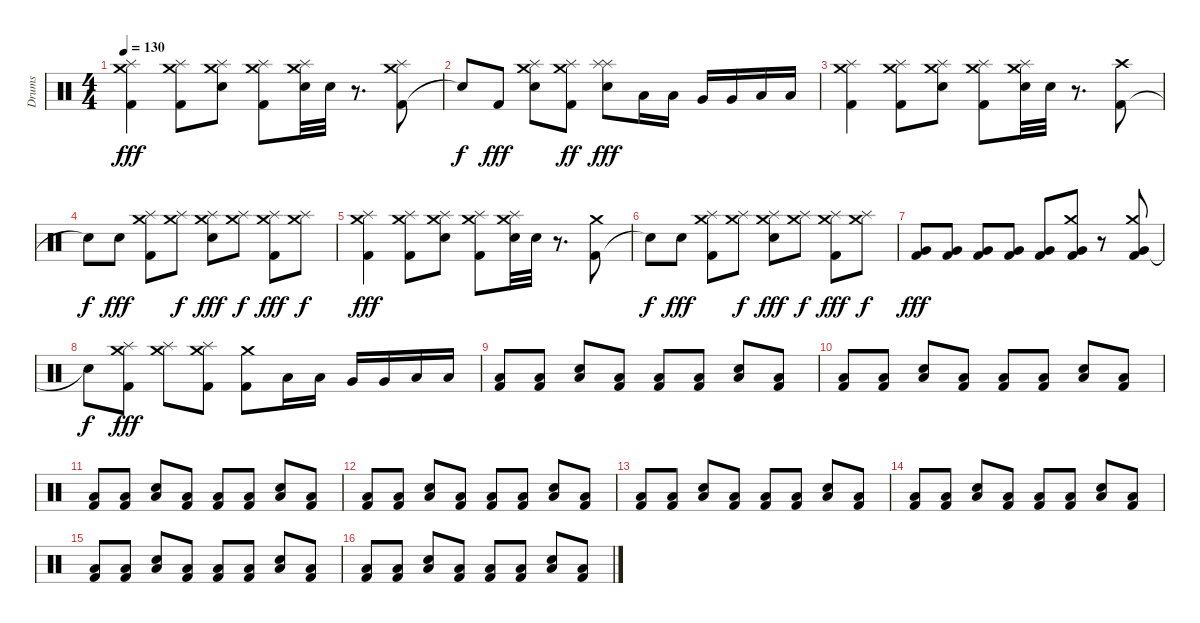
\track ("Drums" "Drums") {instrument percussion}
\staff {score}
\articulation defaults
\ts (4 4)
\tempo 130
\clef neutral
\ks c
("Kick (hit) 2" "Crash medium (hit)" "Splash (hit)").4{dy fff} ("Kick (hit) 2" "Crash medium (hit)" "Splash (hit)").8 ("Snare (hit) 2" "Crash medium (hit)" "Splash (hit)").8 ("Kick (hit) 2" "Crash medium (hit)" "Splash (hit)").8 ("Snare (hit) 2" "Crash medium (hit)" "Splash (hit)").32 "Snare (hit) 2".32 r.8{d} ("Kick (hit) 2" "Crash medium (hit)" "Splash (hit)").8 |
"Snare (hit)"{t}.8{dy f} "Kick (hit) 2".8{dy fff} ("Snare (hit) 2" "Crash medium (hit)" "Splash (hit)").8 ("Kick (hit) 2" "Crash medium (hit)" "Splash (hit)").8{dy ff} ("Snare (hit) 2" "Splash (hit)" "Splash (hit)").8{dy fff} "Low Tom (hit)".16 "Low Tom (hit)".16 "Very Low Tom (hit)".16 "Very Low Tom (hit)".16 "Low Floor Tom (hit)".16 "Low Floor Tom (hit)".16 |
("Kick (hit) 2" "Crash medium (hit)" "Splash (hit)").4 ("Kick (hit) 2" "Crash medium (hit)" "Splash (hit)").8 ("Snare (hit) 2" "Crash medium (hit)" "Splash (hit)").8 ("Kick (hit) 2" "Crash medium (hit)" "Splash (hit)").8 ("Snare (hit) 2" "Crash medium (hit)" "Splash (hit)").32 "Snare (hit) 2".32 r.8{d} ("Kick (hit) 2" "Crash high (hit)").8 |
"Snare (hit)"{t}.8{dy f} "Snare (hit) 2".8{dy fff} ("Kick (hit) 2" "Crash medium (hit)" "Splash (hit)").8 ("Crash medium (hit)" "Splash (hit)").8{dy f} ("Snare (hit) 2" "Crash medium (hit)" "Splash (hit)").8{dy fff} ("Crash medium (hit)" "Splash (hit)").8{dy f} ("Kick (hit) 2" "Crash medium (hit)" "Splash (hit)").8{dy fff} ("Crash medium (hit)" "Splash (hit)").8{dy f} |
("Kick (hit) 2" "Crash medium (hit)" "Splash (hit)").4{dy fff} ("Kick (hit) 2" "Crash medium (hit)" "Splash (hit)").8 ("Snare (hit) 2" "Crash medium (hit)" "Splash (hit)").8 ("Kick (hit) 2" "Crash medium (hit)" "Splash (hit)").8 ("Snare (hit) 2" "Crash medium (hit)" "Splash (hit)").32 "Snare (hit) 2".32 r.8{d} ("Kick (hit) 2" "Crash medium (hit)").8 |
"Snare (hit)"{t}.8{dy f} "Snare (hit) 2".8{dy fff} ("Kick (hit) 2" "Crash medium (hit)" "Splash (hit)").8 ("Crash medium (hit)" "Splash (hit)").8{dy f} ("Snare (hit) 2" "Crash medium (hit)" "Splash (hit)").8{dy fff} ("Crash medium (hit)" "Splash (hit)").8{dy f} ("Kick (hit) 2" "Crash medium (hit)" "Splash (hit)").8{dy fff} ("Crash medium (hit)" "Splash (hit)").8{dy f} |
("Very Low Tom (hit)" "Kick (hit) 2").8{dy fff} ("Very Low Tom (hit)" "Kick (hit) 2").8 ("Very Low Tom (hit)" "Kick (hit) 2").8 ("Very Low Tom (hit)" "Kick (hit) 2").8 ("Very Low Tom (hit)" "Kick (hit) 2").8 ("Very Low Tom (hit)" "Kick (hit) 2" "Crash medium (hit)").8 r.8 ("Very Low Tom (hit)" "Kick (hit) 2" "Crash medium (hit)").8 |
"Snare (hit)"{t}.8{dy f} ("Kick (hit) 2" "Crash medium (hit)" "Splash (hit)").8{dy fff} ("Crash medium (hit)" "Splash (hit)").8 ("Kick (hit) 2" "Crash medium (hit)" "Splash (hit)").8 ("Kick (hit) 2" "Crash medium (hit)").8 "Low Tom (hit)".16 "Low Tom (hit)".16 "Very Low Tom (hit)".16 "Very Low Tom (hit)".16 "Low Floor Tom (hit)".16 "Low Floor Tom (hit)".16 |
("Kick (hit) 2" "Low Tom (hit)").8 ("Kick (hit) 2" "Low Tom (hit)").8 ("Snare (hit) 2" "Low Tom (hit)").8 ("Kick (hit) 2" "Low Tom (hit)").8 ("Kick (hit) 2" "Low Tom (hit)").8 ("Kick (hit) 2" "Low Tom (hit)").8 ("Snare (hit) 2" "Low Tom (hit)").8 ("Kick (hit) 2" "Low Tom (hit)").8 |
("Kick (hit) 2" "Low Tom (hit)").8 ("Kick (hit) 2" "Low Tom (hit)").8 ("Snare (hit) 2" "Low Tom (hit)").8 ("Kick (hit) 2" "Low Tom (hit)").8 ("Kick (hit) 2" "Low Tom (hit)").8 ("Kick (hit) 2" "Low Tom (hit)").8 ("Snare (hit) 2" "Low Tom (hit)").8 ("Kick (hit) 2" "Low Tom (hit)").8 |
("Kick (hit) 2" "Low Tom (hit)").8 ("Kick (hit) 2" "Low Tom (hit)").8 ("Snare (hit) 2" "Low Tom (hit)").8 ("Kick (hit) 2" "Low Tom (hit)").8 ("Kick (hit) 2" "Low Tom (hit)").8 ("Kick (hit) 2" "Low Tom (hit)").8 ("Snare (hit) 2" "Low Tom (hit)").8 ("Kick (hit) 2" "Low Tom (hit)").8 |
("Kick (hit) 2" "Low Tom (hit)").8 ("Kick (hit) 2" "Low Tom (hit)").8 ("Snare (hit) 2" "Low Tom (hit)").8 ("Kick (hit) 2" "Low Tom (hit)").8 ("Kick (hit) 2" "Low Tom (hit)").8 ("Kick (hit) 2" "Low Tom (hit)").8 ("Snare (hit) 2" "Low Tom (hit)").8 ("Kick (hit) 2" "Low Tom (hit)").8 |
("Kick (hit) 2" "Low Tom (hit)").8 ("Kick (hit) 2" "Low Tom (hit)").8 ("Snare (hit) 2" "Low Tom (hit)").8 ("Kick (hit) 2" "Low Tom (hit)").8 ("Kick (hit) 2" "Low Tom (hit)").8 ("Kick (hit) 2" "Low Tom (hit)").8 ("Snare (hit) 2" "Low Tom (hit)").8 ("Kick (hit) 2" "Low Tom (hit)").8 |
("Kick (hit) 2" "Low Tom (hit)").8 ("Kick (hit) 2" "Low Tom (hit)").8 ("Snare (hit) 2" "Low Tom (hit)").8 ("Kick (hit) 2" "Low Tom (hit)").8 ("Kick (hit) 2" "Low Tom (hit)").8 ("Kick (hit) 2" "Low Tom (hit)").8 ("Snare (hit) 2" "Low Tom (hit)").8 ("Kick (hit) 2" "Low Tom (hit)").8 |
("Kick (hit) 2" "Low Tom (hit)").8 ("Kick (hit) 2" "Low Tom (hit)").8 ("Snare (hit) 2" "Low Tom (hit)").8 ("Kick (hit) 2" "Low Tom (hit)").8 ("Kick (hit) 2" "Low Tom (hit)").8 ("Kick (hit) 2" "Low Tom (hit)").8 ("Snare (hit) 2" "Low Tom (hit)").8 ("Kick (hit) 2" "Low Tom (hit)").8 |
("Kick (hit) 2" "Low Tom (hit)").8 ("Kick (hit) 2" "Low Tom (hit)").8 ("Snare (hit) 2" "Low Tom (hit)").8 ("Kick (hit) 2" "Low Tom (hit)").8 ("Kick (hit) 2" "Low Tom (hit)").8 ("Kick (hit) 2" "Low Tom (hit)").8 ("Snare (hit) 2" "Low Tom (hit)").8 ("Kick (hit) 2" "Low Tom (hit)").8
